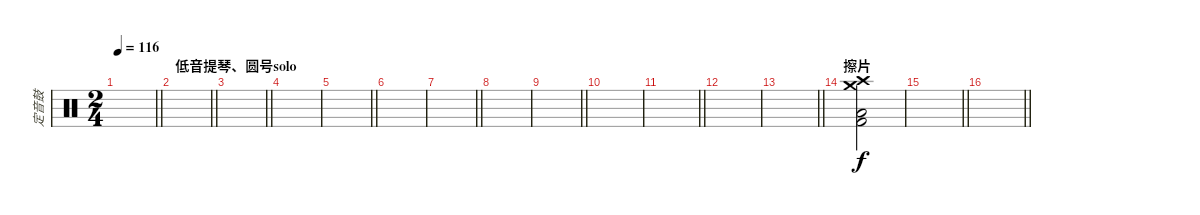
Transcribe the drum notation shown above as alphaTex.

\track ("定音鼓" "定音鼓") {instrument percussion}
\staff {score}
\articulation defaults
\ts (2 4)
\tempo 116
\clef neutral
\barLineRight lightlight
\ks c
|
\section ("" "低音提琴、圆号solo")
\barLineRight lightlight
|
\barLineRight lightlight
|
|
\barLineRight lightlight
|
|
\barLineRight lightlight
|
|
\barLineRight lightlight
|
|
\barLineRight lightlight
|
|
\barLineRight lightlight
|
\section ("" "擦片")
("Crash high (hit)" "Crash medium (hit)" "Kick (hit) 2" "Low Floor Tom (hit)").2 |
\barLineRight lightlight
|
\barLineRight lightlight
